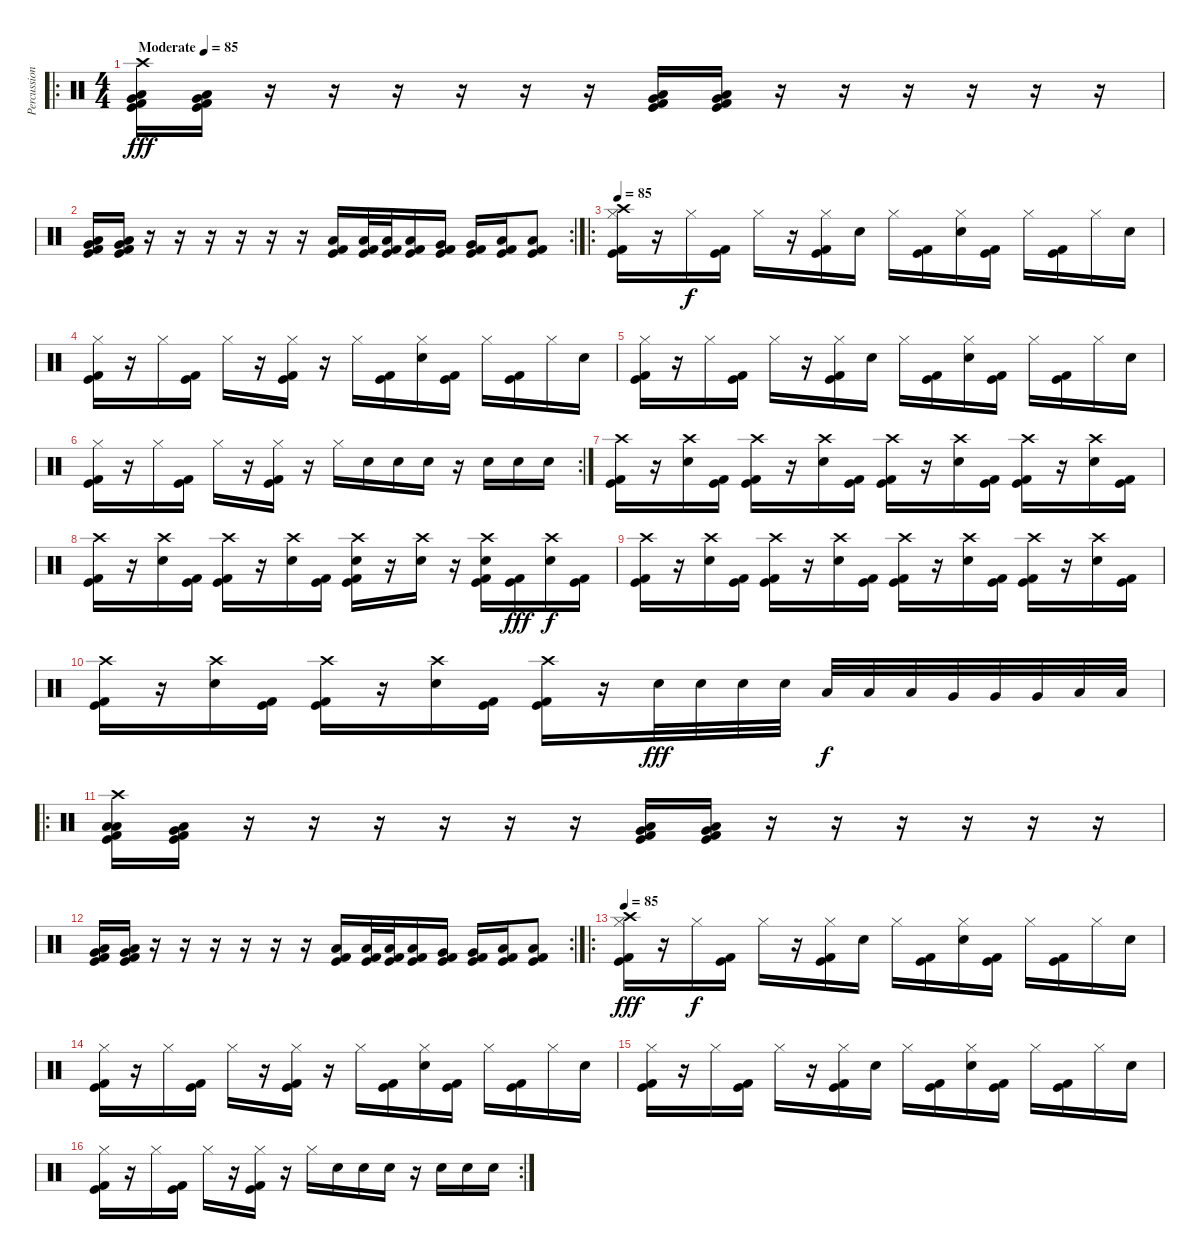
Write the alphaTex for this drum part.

\track ("Percussion" "Percussion") {instrument percussion}
\staff {score}
\articulation defaults
\ro
\ts (4 4)
\tempo (85 "Moderate")
\clef neutral
\ks c
("Crash high (hit)" "Low Floor Tom (hit)" "Very Low Tom (hit)" "Kick (hit)" "Kick (hit) 2").16{dy fff} ("Low Floor Tom (hit)" "Very Low Tom (hit)" "Kick (hit)" "Kick (hit) 2").16 r.16 r.16 r.16 r.16 r.16 r.16 ("Low Floor Tom (hit)" "Very Low Tom (hit)" "Kick (hit)" "Kick (hit) 2").16 ("Low Floor Tom (hit)" "Very Low Tom (hit)" "Kick (hit)" "Kick (hit) 2").16 r.16 r.16 r.16 r.16 r.16 r.16 |
\rc 2
("Low Floor Tom (hit)" "Very Low Tom (hit)" "Kick (hit)" "Kick (hit) 2").16 ("Low Floor Tom (hit)" "Very Low Tom (hit)" "Kick (hit)" "Kick (hit) 2").16 r.16 r.16 r.16 r.16 r.16 r.16 ("Low Tom (hit)" "Kick (hit)" "Kick (hit) 2").16 ("Low Tom (hit)" "Kick (hit)" "Kick (hit) 2").32 ("Low Tom (hit)" "Kick (hit)" "Kick (hit) 2").32 ("Low Tom (hit)" "Kick (hit)" "Kick (hit) 2").16 ("Very Low Tom (hit)" "Kick (hit)" "Kick (hit) 2").16 ("Very Low Tom (hit)" "Kick (hit)" "Kick (hit) 2").16 ("Low Floor Tom (hit)" "Kick (hit)" "Kick (hit) 2").16 ("Low Floor Tom (hit)" "Kick (hit)" "Kick (hit) 2").8 |
\ro
\tempo 85
("Crash high (hit)" "Hi-Hat (closed)" "Kick (hit) 2" "Kick (hit)").16 r.16 "Hi-Hat (closed)".16{dy f} ("Kick (hit) 2" "Kick (hit)").16 "Hi-Hat (closed)".16 r.16 ("Hi-Hat (closed)" "Kick (hit) 2" "Kick (hit)").16 "Electric Snare (hit)".16 "Hi-Hat (closed)".16 ("Kick (hit) 2" "Kick (hit)").16 ("Hi-Hat (closed)" "Electric Snare (hit)").16 ("Kick (hit) 2" "Kick (hit)").16 "Hi-Hat (closed)".16 ("Kick (hit) 2" "Kick (hit)").16 "Hi-Hat (closed)".16 "Electric Snare (hit)".16 |
("Hi-Hat (closed)" "Kick (hit) 2" "Kick (hit)").16 r.16 "Hi-Hat (closed)".16 ("Kick (hit) 2" "Kick (hit)").16 "Hi-Hat (closed)".16 r.16 ("Hi-Hat (closed)" "Kick (hit) 2" "Kick (hit)").16 r.16 "Hi-Hat (closed)".16 ("Kick (hit) 2" "Kick (hit)").16 ("Hi-Hat (closed)" "Electric Snare (hit)").16 ("Kick (hit) 2" "Kick (hit)").16 "Hi-Hat (closed)".16 ("Kick (hit) 2" "Kick (hit)").16 "Hi-Hat (closed)".16 "Electric Snare (hit)".16 |
("Hi-Hat (closed)" "Kick (hit) 2" "Kick (hit)").16 r.16 "Hi-Hat (closed)".16 ("Kick (hit) 2" "Kick (hit)").16 "Hi-Hat (closed)".16 r.16 ("Hi-Hat (closed)" "Kick (hit) 2" "Kick (hit)").16 "Electric Snare (hit)".16 "Hi-Hat (closed)".16 ("Kick (hit) 2" "Kick (hit)").16 ("Hi-Hat (closed)" "Electric Snare (hit)").16 ("Kick (hit) 2" "Kick (hit)").16 "Hi-Hat (closed)".16 ("Kick (hit) 2" "Kick (hit)").16 "Hi-Hat (closed)".16 "Electric Snare (hit)".16 |
\rc 2
("Hi-Hat (closed)" "Kick (hit) 2" "Kick (hit)").16 r.16 "Hi-Hat (closed)".16 ("Kick (hit) 2" "Kick (hit)").16 "Hi-Hat (closed)".16 r.16 ("Hi-Hat (closed)" "Kick (hit) 2" "Kick (hit)").16 r.16 "Hi-Hat (closed)".16 "Electric Snare (hit)".16 "Electric Snare (hit)".16 "Electric Snare (hit)".16 r.16 "Electric Snare (hit)".16 "Electric Snare (hit)".16 "Electric Snare (hit)".16 |
("Crash high (hit)" "Kick (hit) 2" "Kick (hit)").16 r.16 ("Crash high (hit)" "Electric Snare (hit)").16 ("Kick (hit) 2" "Kick (hit)").16 ("Crash high (hit)" "Kick (hit) 2" "Kick (hit)").16 r.16 ("Crash high (hit)" "Electric Snare (hit)").16 ("Kick (hit) 2" "Kick (hit)").16 ("Crash high (hit)" "Kick (hit) 2" "Kick (hit)").16 r.16 ("Crash high (hit)" "Electric Snare (hit)").16 ("Kick (hit) 2" "Kick (hit)").16 ("Crash high (hit)" "Kick (hit) 2" "Kick (hit)").16 r.16 ("Crash high (hit)" "Electric Snare (hit)").16 ("Kick (hit) 2" "Kick (hit)").16 |
("Crash high (hit)" "Kick (hit) 2" "Kick (hit)").16 r.16 ("Crash high (hit)" "Electric Snare (hit)").16 ("Kick (hit) 2" "Kick (hit)").16 ("Crash high (hit)" "Kick (hit) 2" "Kick (hit)").16 r.16 ("Crash high (hit)" "Electric Snare (hit)").16 ("Kick (hit) 2" "Kick (hit)").16 ("Crash high (hit)" "Electric Snare (hit)" "Kick (hit) 2" "Kick (hit)").16 r.16 ("Crash high (hit)" "Electric Snare (hit)").16 r.16 ("Crash high (hit)" "Electric Snare (hit)" "Kick (hit) 2" "Kick (hit)").16 ("Kick (hit) 2" "Kick (hit)").16{dy fff} ("Crash high (hit)" "Electric Snare (hit)").16{dy f} ("Kick (hit) 2" "Kick (hit)").16 |
("Crash high (hit)" "Kick (hit) 2" "Kick (hit)").16 r.16 ("Crash high (hit)" "Electric Snare (hit)").16 ("Kick (hit) 2" "Kick (hit)").16 ("Crash high (hit)" "Kick (hit) 2" "Kick (hit)").16 r.16 ("Crash high (hit)" "Electric Snare (hit)").16 ("Kick (hit) 2" "Kick (hit)").16 ("Crash high (hit)" "Kick (hit) 2" "Kick (hit)").16 r.16 ("Crash high (hit)" "Electric Snare (hit)").16 ("Kick (hit) 2" "Kick (hit)").16 ("Crash high (hit)" "Kick (hit) 2" "Kick (hit)").16 r.16 ("Crash high (hit)" "Electric Snare (hit)").16 ("Kick (hit) 2" "Kick (hit)").16 |
("Crash high (hit)" "Kick (hit) 2" "Kick (hit)").16 r.16 ("Crash high (hit)" "Electric Snare (hit)").16 ("Kick (hit) 2" "Kick (hit)").16 ("Crash high (hit)" "Kick (hit) 2" "Kick (hit)").16 r.16 ("Crash high (hit)" "Electric Snare (hit)").16 ("Kick (hit) 2" "Kick (hit)").16 ("Crash high (hit)" "Kick (hit) 2" "Kick (hit)").16 r.16 "Electric Snare (hit)".32{dy fff} "Electric Snare (hit)".32 "Electric Snare (hit)".32 "Electric Snare (hit)".32 "Low Tom (hit)".32{dy f} "Low Tom (hit)".32 "Low Tom (hit)".32 "Very Low Tom (hit)".32 "Very Low Tom (hit)".32 "Very Low Tom (hit)".32 "Low Floor Tom (hit)".32 "Low Floor Tom (hit)".32 |
\ro
("Crash high (hit)" "Low Floor Tom (hit)" "Low Floor Tom (hit)" "Kick (hit)" "Kick (hit) 2").16 ("Low Floor Tom (hit)" "Very Low Tom (hit)" "Kick (hit)" "Kick (hit) 2").16 r.16 r.16 r.16 r.16 r.16 r.16 ("Low Floor Tom (hit)" "Very Low Tom (hit)" "Kick (hit)" "Kick (hit) 2").16 ("Low Floor Tom (hit)" "Very Low Tom (hit)" "Kick (hit)" "Kick (hit) 2").16 r.16 r.16 r.16 r.16 r.16 r.16 |
\rc 2
("Low Floor Tom (hit)" "Very Low Tom (hit)" "Kick (hit)" "Kick (hit) 2").16 ("Low Floor Tom (hit)" "Very Low Tom (hit)" "Kick (hit)" "Kick (hit) 2").16 r.16 r.16 r.16 r.16 r.16 r.16 ("Low Tom (hit)" "Kick (hit)" "Kick (hit) 2").16 ("Low Tom (hit)" "Kick (hit)" "Kick (hit) 2").32 ("Low Tom (hit)" "Kick (hit)" "Kick (hit) 2").32 ("Low Tom (hit)" "Kick (hit)" "Kick (hit) 2").16 ("Very Low Tom (hit)" "Kick (hit)" "Kick (hit) 2").16 ("Very Low Tom (hit)" "Kick (hit)" "Kick (hit) 2").16 ("Low Floor Tom (hit)" "Kick (hit)" "Kick (hit) 2").16 ("Low Floor Tom (hit)" "Kick (hit)" "Kick (hit) 2").8 |
\ro
\tempo 85
("Crash high (hit)" "Hi-Hat (closed)" "Kick (hit) 2" "Kick (hit)").16{dy fff} r.16 "Hi-Hat (closed)".16{dy f} ("Kick (hit) 2" "Kick (hit)").16 "Hi-Hat (closed)".16 r.16 ("Hi-Hat (closed)" "Kick (hit) 2" "Kick (hit)").16 "Electric Snare (hit)".16 "Hi-Hat (closed)".16 ("Kick (hit) 2" "Kick (hit)").16 ("Hi-Hat (closed)" "Electric Snare (hit)").16 ("Kick (hit) 2" "Kick (hit)").16 "Hi-Hat (closed)".16 ("Kick (hit) 2" "Kick (hit)").16 "Hi-Hat (closed)".16 "Electric Snare (hit)".16 |
("Hi-Hat (closed)" "Kick (hit) 2" "Kick (hit)").16 r.16 "Hi-Hat (closed)".16 ("Kick (hit) 2" "Kick (hit)").16 "Hi-Hat (closed)".16 r.16 ("Hi-Hat (closed)" "Kick (hit) 2" "Kick (hit)").16 r.16 "Hi-Hat (closed)".16 ("Kick (hit) 2" "Kick (hit)").16 ("Hi-Hat (closed)" "Electric Snare (hit)").16 ("Kick (hit) 2" "Kick (hit)").16 "Hi-Hat (closed)".16 ("Kick (hit) 2" "Kick (hit)").16 "Hi-Hat (closed)".16 "Electric Snare (hit)".16 |
("Hi-Hat (closed)" "Kick (hit) 2" "Kick (hit)").16 r.16 "Hi-Hat (closed)".16 ("Kick (hit) 2" "Kick (hit)").16 "Hi-Hat (closed)".16 r.16 ("Hi-Hat (closed)" "Kick (hit) 2" "Kick (hit)").16 "Electric Snare (hit)".16 "Hi-Hat (closed)".16 ("Kick (hit) 2" "Kick (hit)").16 ("Hi-Hat (closed)" "Electric Snare (hit)").16 ("Kick (hit) 2" "Kick (hit)").16 "Hi-Hat (closed)".16 ("Kick (hit) 2" "Kick (hit)").16 "Hi-Hat (closed)".16 "Electric Snare (hit)".16 |
\rc 2
("Hi-Hat (closed)" "Kick (hit) 2" "Kick (hit)").16 r.16 "Hi-Hat (closed)".16 ("Kick (hit) 2" "Kick (hit)").16 "Hi-Hat (closed)".16 r.16 ("Hi-Hat (closed)" "Kick (hit) 2" "Kick (hit)").16 r.16 "Hi-Hat (closed)".16 "Electric Snare (hit)".16 "Electric Snare (hit)".16 "Electric Snare (hit)".16 r.16 "Electric Snare (hit)".16 "Electric Snare (hit)".16 "Electric Snare (hit)".16
